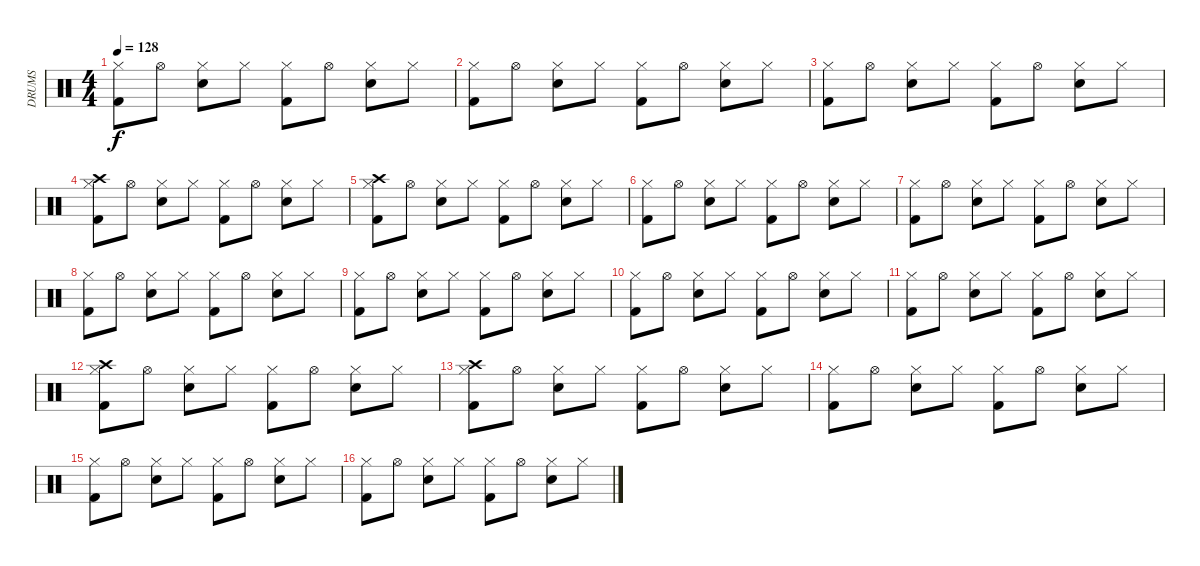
\track ("DRUMS" "DRUMS") {instrument percussion}
\staff {score}
\articulation defaults
\ts (4 4)
\tempo 128
\clef neutral
\ks c
("Kick (hit) 2" "Hi-Hat (closed)").8{dy f} "Hi-Hat (open)".8 ("Electric Snare (hit)" "Hi-Hat (closed)").8 "Hi-Hat (closed)".8 ("Kick (hit) 2" "Hi-Hat (closed)").8 "Hi-Hat (open)".8 ("Electric Snare (hit)" "Hi-Hat (closed)").8 "Hi-Hat (closed)".8 |
("Kick (hit) 2" "Hi-Hat (closed)").8 "Hi-Hat (open)".8 ("Electric Snare (hit)" "Hi-Hat (closed)").8 "Hi-Hat (closed)".8 ("Kick (hit) 2" "Hi-Hat (closed)").8 "Hi-Hat (open)".8 ("Electric Snare (hit)" "Hi-Hat (closed)").8 "Hi-Hat (closed)".8 |
("Kick (hit) 2" "Hi-Hat (closed)").8 "Hi-Hat (open)".8 ("Electric Snare (hit)" "Hi-Hat (closed)").8 "Hi-Hat (closed)".8 ("Kick (hit) 2" "Hi-Hat (closed)").8 "Hi-Hat (open)".8 ("Electric Snare (hit)" "Hi-Hat (closed)").8 "Hi-Hat (closed)".8 |
("Kick (hit) 2" "Hi-Hat (closed)" "Crash high (hit)").8 "Hi-Hat (open)".8 ("Electric Snare (hit)" "Hi-Hat (closed)").8 "Hi-Hat (closed)".8 ("Kick (hit) 2" "Hi-Hat (closed)").8 "Hi-Hat (open)".8 ("Electric Snare (hit)" "Hi-Hat (closed)").8 "Hi-Hat (closed)".8 |
("Kick (hit) 2" "Hi-Hat (closed)" "Crash high (hit)").8 "Hi-Hat (open)".8 ("Electric Snare (hit)" "Hi-Hat (closed)").8 "Hi-Hat (closed)".8 ("Kick (hit) 2" "Hi-Hat (closed)").8 "Hi-Hat (open)".8 ("Electric Snare (hit)" "Hi-Hat (closed)").8 "Hi-Hat (closed)".8 |
("Kick (hit) 2" "Hi-Hat (closed)").8 "Hi-Hat (open)".8 ("Electric Snare (hit)" "Hi-Hat (closed)").8 "Hi-Hat (closed)".8 ("Kick (hit) 2" "Hi-Hat (closed)").8 "Hi-Hat (open)".8 ("Electric Snare (hit)" "Hi-Hat (closed)").8 "Hi-Hat (closed)".8 |
("Kick (hit) 2" "Hi-Hat (closed)").8 "Hi-Hat (open)".8 ("Electric Snare (hit)" "Hi-Hat (closed)").8 "Hi-Hat (closed)".8 ("Kick (hit) 2" "Hi-Hat (closed)").8 "Hi-Hat (open)".8 ("Electric Snare (hit)" "Hi-Hat (closed)").8 "Hi-Hat (closed)".8 |
("Kick (hit) 2" "Hi-Hat (closed)").8 "Hi-Hat (open)".8 ("Electric Snare (hit)" "Hi-Hat (closed)").8 "Hi-Hat (closed)".8 ("Kick (hit) 2" "Hi-Hat (closed)").8 "Hi-Hat (open)".8 ("Electric Snare (hit)" "Hi-Hat (closed)").8 "Hi-Hat (closed)".8 |
("Kick (hit) 2" "Hi-Hat (closed)").8 "Hi-Hat (open)".8 ("Electric Snare (hit)" "Hi-Hat (closed)").8 "Hi-Hat (closed)".8 ("Kick (hit) 2" "Hi-Hat (closed)").8 "Hi-Hat (open)".8 ("Electric Snare (hit)" "Hi-Hat (closed)").8 "Hi-Hat (closed)".8 |
("Kick (hit) 2" "Hi-Hat (closed)").8 "Hi-Hat (open)".8 ("Electric Snare (hit)" "Hi-Hat (closed)").8 "Hi-Hat (closed)".8 ("Kick (hit) 2" "Hi-Hat (closed)").8 "Hi-Hat (open)".8 ("Electric Snare (hit)" "Hi-Hat (closed)").8 "Hi-Hat (closed)".8 |
("Kick (hit) 2" "Hi-Hat (closed)").8 "Hi-Hat (open)".8 ("Electric Snare (hit)" "Hi-Hat (closed)").8 "Hi-Hat (closed)".8 ("Kick (hit) 2" "Hi-Hat (closed)").8 "Hi-Hat (open)".8 ("Electric Snare (hit)" "Hi-Hat (closed)").8 "Hi-Hat (closed)".8 |
("Kick (hit) 2" "Hi-Hat (closed)" "Crash high (hit)").8 "Hi-Hat (open)".8 ("Electric Snare (hit)" "Hi-Hat (closed)").8 "Hi-Hat (closed)".8 ("Kick (hit) 2" "Hi-Hat (closed)").8 "Hi-Hat (open)".8 ("Electric Snare (hit)" "Hi-Hat (closed)").8 "Hi-Hat (closed)".8 |
("Kick (hit) 2" "Hi-Hat (closed)" "Crash high (hit)").8 "Hi-Hat (open)".8 ("Electric Snare (hit)" "Hi-Hat (closed)").8 "Hi-Hat (closed)".8 ("Kick (hit) 2" "Hi-Hat (closed)").8 "Hi-Hat (open)".8 ("Electric Snare (hit)" "Hi-Hat (closed)").8 "Hi-Hat (closed)".8 |
("Kick (hit) 2" "Hi-Hat (closed)").8 "Hi-Hat (open)".8 ("Electric Snare (hit)" "Hi-Hat (closed)").8 "Hi-Hat (closed)".8 ("Kick (hit) 2" "Hi-Hat (closed)").8 "Hi-Hat (open)".8 ("Electric Snare (hit)" "Hi-Hat (closed)").8 "Hi-Hat (closed)".8 |
("Kick (hit) 2" "Hi-Hat (closed)").8 "Hi-Hat (open)".8 ("Electric Snare (hit)" "Hi-Hat (closed)").8 "Hi-Hat (closed)".8 ("Kick (hit) 2" "Hi-Hat (closed)").8 "Hi-Hat (open)".8 ("Electric Snare (hit)" "Hi-Hat (closed)").8 "Hi-Hat (closed)".8 |
("Kick (hit) 2" "Hi-Hat (closed)").8 "Hi-Hat (open)".8 ("Electric Snare (hit)" "Hi-Hat (closed)").8 "Hi-Hat (closed)".8 ("Kick (hit) 2" "Hi-Hat (closed)").8 "Hi-Hat (open)".8 ("Electric Snare (hit)" "Hi-Hat (closed)").8 "Hi-Hat (closed)".8
